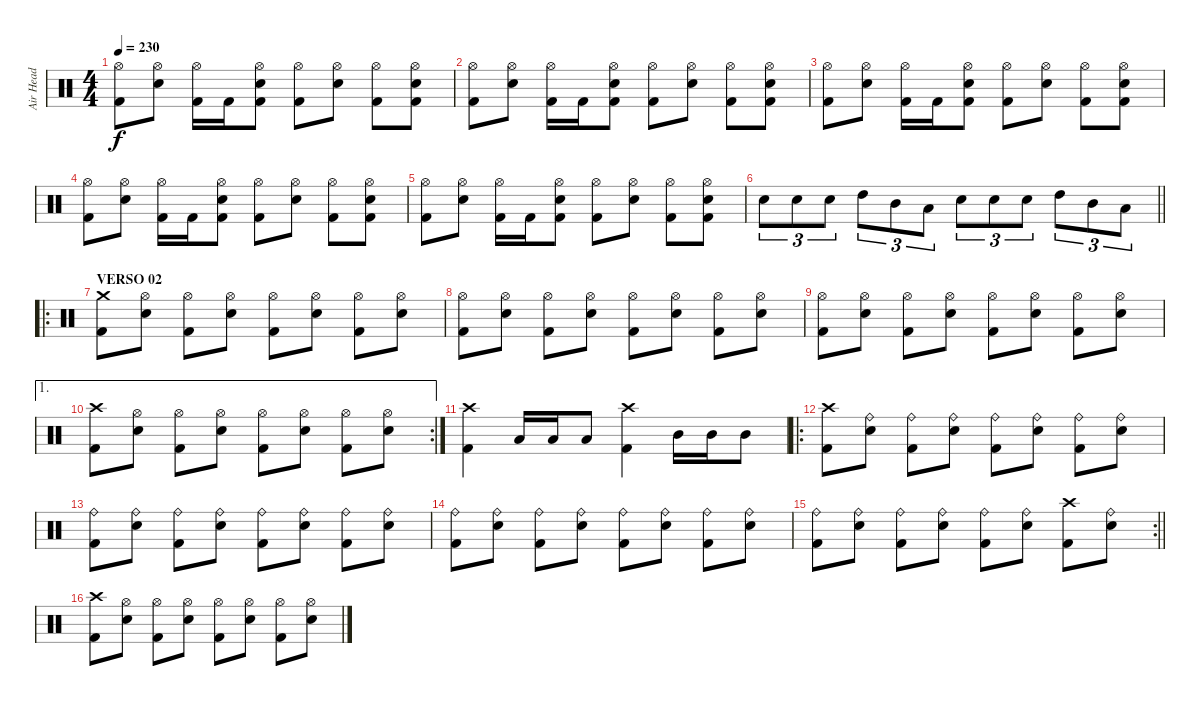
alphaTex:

\track ("Air Head" "Air Head") {instrument percussion}
\staff {score}
\articulation defaults
\ts (4 4)
\tempo 230
\clef neutral
\ks c
("Hi-Hat (open)" "Kick (hit) 2").8{dy f} ("Hi-Hat (open)" "Snare (hit) 2").8 ("Hi-Hat (open)" "Kick (hit) 2").16 "Kick (hit) 2".16 ("Hi-Hat (open)" "Snare (hit) 2" "Kick (hit) 2").8 ("Hi-Hat (open)" "Kick (hit) 2").8 ("Hi-Hat (open)" "Snare (hit) 2").8 ("Hi-Hat (open)" "Kick (hit) 2").8 ("Hi-Hat (open)" "Snare (hit) 2" "Kick (hit) 2").8 |
("Hi-Hat (open)" "Kick (hit) 2").8 ("Hi-Hat (open)" "Snare (hit) 2").8 ("Hi-Hat (open)" "Kick (hit) 2").16 "Kick (hit) 2".16 ("Hi-Hat (open)" "Snare (hit) 2" "Kick (hit) 2").8 ("Hi-Hat (open)" "Kick (hit) 2").8 ("Hi-Hat (open)" "Snare (hit) 2").8 ("Hi-Hat (open)" "Kick (hit) 2").8 ("Hi-Hat (open)" "Snare (hit) 2" "Kick (hit) 2").8 |
("Hi-Hat (open)" "Kick (hit) 2").8 ("Hi-Hat (open)" "Snare (hit) 2").8 ("Hi-Hat (open)" "Kick (hit) 2").16 "Kick (hit) 2".16 ("Hi-Hat (open)" "Snare (hit) 2" "Kick (hit) 2").8 ("Hi-Hat (open)" "Kick (hit) 2").8 ("Hi-Hat (open)" "Snare (hit) 2").8 ("Hi-Hat (open)" "Kick (hit) 2").8 ("Hi-Hat (open)" "Snare (hit) 2" "Kick (hit) 2").8 |
("Hi-Hat (open)" "Kick (hit) 2").8 ("Hi-Hat (open)" "Snare (hit) 2").8 ("Hi-Hat (open)" "Kick (hit) 2").16 "Kick (hit) 2".16 ("Hi-Hat (open)" "Snare (hit) 2" "Kick (hit) 2").8 ("Hi-Hat (open)" "Kick (hit) 2").8 ("Hi-Hat (open)" "Snare (hit) 2").8 ("Hi-Hat (open)" "Kick (hit) 2").8 ("Hi-Hat (open)" "Snare (hit) 2" "Kick (hit) 2").8 |
("Hi-Hat (open)" "Kick (hit) 2").8 ("Hi-Hat (open)" "Snare (hit) 2").8 ("Hi-Hat (open)" "Kick (hit) 2").16 "Kick (hit) 2".16 ("Hi-Hat (open)" "Snare (hit) 2" "Kick (hit) 2").8 ("Hi-Hat (open)" "Kick (hit) 2").8 ("Hi-Hat (open)" "Snare (hit) 2").8 ("Hi-Hat (open)" "Kick (hit) 2").8 ("Hi-Hat (open)" "Snare (hit) 2" "Kick (hit) 2").8 |
\barLineRight lightlight "Snare (hit) 2".8{tu (3 2)} "Snare (hit) 2".8{tu (3 2)} "Snare (hit) 2".8{tu (3 2)} "High Tom (hit)".8{tu (3 2)} "Mid Tom (hit)".8{tu (3 2)} "Low Tom (hit)".8{tu (3 2)} "Snare (hit) 2".8{tu (3 2)} "Snare (hit) 2".8{tu (3 2)} "Snare (hit) 2".8{tu (3 2)} "High Tom (hit)".8{tu (3 2)} "Mid Tom (hit)".8{tu (3 2)} "Low Tom (hit)".8{tu (3 2)}
|
\ro
\section ("" "VERSO 02")
("Crash medium (hit)" "Kick (hit) 2").8 ("Hi-Hat (open)" "Snare (hit) 2").8 ("Hi-Hat (open)" "Kick (hit) 2").8 ("Hi-Hat (open)" "Snare (hit) 2").8 ("Hi-Hat (open)" "Kick (hit) 2").8 ("Hi-Hat (open)" "Snare (hit) 2").8 ("Hi-Hat (open)" "Kick (hit) 2").8 ("Hi-Hat (open)" "Snare (hit) 2").8 |
("Hi-Hat (open)" "Kick (hit) 2").8 ("Hi-Hat (open)" "Snare (hit) 2").8 ("Hi-Hat (open)" "Kick (hit) 2").8 ("Hi-Hat (open)" "Snare (hit) 2").8 ("Hi-Hat (open)" "Kick (hit) 2").8 ("Hi-Hat (open)" "Snare (hit) 2").8 ("Hi-Hat (open)" "Kick (hit) 2").8 ("Hi-Hat (open)" "Snare (hit) 2").8 |
("Hi-Hat (open)" "Kick (hit) 2").8 ("Hi-Hat (open)" "Snare (hit) 2").8 ("Hi-Hat (open)" "Kick (hit) 2").8 ("Hi-Hat (open)" "Snare (hit) 2").8 ("Hi-Hat (open)" "Kick (hit) 2").8 ("Hi-Hat (open)" "Snare (hit) 2").8 ("Hi-Hat (open)" "Kick (hit) 2").8 ("Hi-Hat (open)" "Snare (hit) 2").8 |
\ae 1
\rc 2
("Crash high (hit)" "Kick (hit) 2").8 ("Hi-Hat (open)" "Snare (hit) 2").8 ("Hi-Hat (open)" "Kick (hit) 2").8 ("Hi-Hat (open)" "Snare (hit) 2").8 ("Hi-Hat (open)" "Kick (hit) 2").8 ("Hi-Hat (open)" "Snare (hit) 2").8 ("Hi-Hat (open)" "Kick (hit) 2").8 ("Hi-Hat (open)" "Snare (hit) 2").8 |
("Crash high (hit)" "Kick (hit) 2").4 "Low Tom (hit)".16 "Low Tom (hit)".16 "Low Tom (hit)".8 ("Crash high (hit)" "Kick (hit) 2").4 "Mid Tom (hit)".16 "Mid Tom (hit)".16 "Mid Tom (hit)".8 |
\ro
("Crash high (hit)" "Kick (hit) 2").8 ("Ride (bell)" "Snare (hit) 2").8 ("Ride (bell)" "Kick (hit) 2").8 ("Ride (bell)" "Snare (hit) 2").8 ("Ride (bell)" "Kick (hit) 2").8 ("Ride (bell)" "Snare (hit) 2").8 ("Ride (bell)" "Kick (hit) 2").8 ("Ride (bell)" "Snare (hit) 2").8 |
("Ride (bell)" "Kick (hit) 2").8 ("Ride (bell)" "Snare (hit) 2").8 ("Ride (bell)" "Kick (hit) 2").8 ("Ride (bell)" "Snare (hit) 2").8 ("Ride (bell)" "Kick (hit) 2").8 ("Ride (bell)" "Snare (hit) 2").8 ("Ride (bell)" "Kick (hit) 2").8 ("Ride (bell)" "Snare (hit) 2").8 |
("Ride (bell)" "Kick (hit) 2").8 ("Ride (bell)" "Snare (hit) 2").8 ("Ride (bell)" "Kick (hit) 2").8 ("Ride (bell)" "Snare (hit) 2").8 ("Ride (bell)" "Kick (hit) 2").8 ("Ride (bell)" "Snare (hit) 2").8 ("Ride (bell)" "Kick (hit) 2").8 ("Ride (bell)" "Snare (hit) 2").8 |
\rc 2
\barLineRight lightlight
("Ride (bell)" "Kick (hit) 2").8 ("Ride (bell)" "Snare (hit) 2").8 ("Ride (bell)" "Kick (hit) 2").8 ("Ride (bell)" "Snare (hit) 2").8 ("Ride (bell)" "Kick (hit) 2").8 ("Ride (bell)" "Snare (hit) 2").8 ("Crash high (hit)" "Kick (hit) 2").8 ("Ride (bell)" "Snare (hit) 2").8 |
("Crash high (hit)" "Kick (hit) 2").8 ("Hi-Hat (open)" "Snare (hit) 2").8 ("Hi-Hat (open)" "Kick (hit) 2").8 ("Hi-Hat (open)" "Snare (hit) 2").8 ("Hi-Hat (open)" "Kick (hit) 2").8 ("Hi-Hat (open)" "Snare (hit) 2").8 ("Hi-Hat (open)" "Kick (hit) 2").8 ("Hi-Hat (open)" "Snare (hit) 2").8
